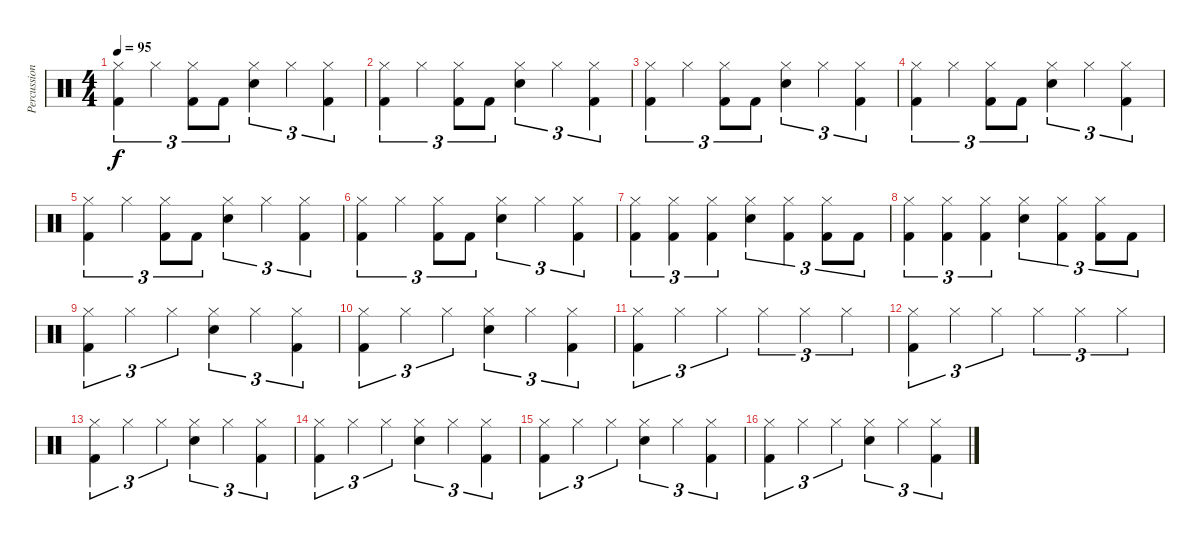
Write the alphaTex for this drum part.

\track ("Percussion" "Percussion") {instrument percussion}
\staff {score}
\articulation defaults
\ts (4 4)
\tempo 95
\clef neutral
\ks c
("Hi-Hat (closed)" "Kick (hit) 2").4{tu (3 2) dy f} "Hi-Hat (closed)".4{tu (3 2)} ("Hi-Hat (closed)" "Kick (hit) 2").8{tu (3 2)} "Kick (hit) 2".8{tu (3 2)} ("Hi-Hat (closed)" "Electric Snare (hit)").4{tu (3 2)} "Hi-Hat (closed)".4{tu (3 2)} ("Hi-Hat (closed)" "Kick (hit) 2").4{tu (3 2)} |
("Hi-Hat (closed)" "Kick (hit) 2").4{tu (3 2)} "Hi-Hat (closed)".4{tu (3 2)} ("Hi-Hat (closed)" "Kick (hit) 2").8{tu (3 2)} "Kick (hit) 2".8{tu (3 2)} ("Hi-Hat (closed)" "Electric Snare (hit)").4{tu (3 2)} "Hi-Hat (closed)".4{tu (3 2)} ("Hi-Hat (closed)" "Kick (hit) 2").4{tu (3 2)} |
("Hi-Hat (closed)" "Kick (hit) 2").4{tu (3 2)} "Hi-Hat (closed)".4{tu (3 2)} ("Hi-Hat (closed)" "Kick (hit) 2").8{tu (3 2)} "Kick (hit) 2".8{tu (3 2)} ("Hi-Hat (closed)" "Electric Snare (hit)").4{tu (3 2)} "Hi-Hat (closed)".4{tu (3 2)} ("Hi-Hat (closed)" "Kick (hit) 2").4{tu (3 2)} |
("Hi-Hat (closed)" "Kick (hit) 2").4{tu (3 2)} "Hi-Hat (closed)".4{tu (3 2)} ("Hi-Hat (closed)" "Kick (hit) 2").8{tu (3 2)} "Kick (hit) 2".8{tu (3 2)} ("Hi-Hat (closed)" "Electric Snare (hit)").4{tu (3 2)} "Hi-Hat (closed)".4{tu (3 2)} ("Hi-Hat (closed)" "Kick (hit) 2").4{tu (3 2)} |
("Hi-Hat (closed)" "Kick (hit) 2").4{tu (3 2)} "Hi-Hat (closed)".4{tu (3 2)} ("Hi-Hat (closed)" "Kick (hit) 2").8{tu (3 2)} "Kick (hit) 2".8{tu (3 2)} ("Hi-Hat (closed)" "Electric Snare (hit)").4{tu (3 2)} "Hi-Hat (closed)".4{tu (3 2)} ("Hi-Hat (closed)" "Kick (hit) 2").4{tu (3 2)} |
("Hi-Hat (closed)" "Kick (hit) 2").4{tu (3 2)} "Hi-Hat (closed)".4{tu (3 2)} ("Hi-Hat (closed)" "Kick (hit) 2").8{tu (3 2)} "Kick (hit) 2".8{tu (3 2)} ("Hi-Hat (closed)" "Electric Snare (hit)").4{tu (3 2)} "Hi-Hat (closed)".4{tu (3 2)} ("Hi-Hat (closed)" "Kick (hit) 2").4{tu (3 2)} |
("Hi-Hat (closed)" "Kick (hit) 2").4{tu (3 2)} ("Hi-Hat (closed)" "Kick (hit) 2").4{tu (3 2)} ("Hi-Hat (closed)" "Kick (hit) 2").4{tu (3 2)} ("Hi-Hat (closed)" "Electric Snare (hit)").4{tu (3 2)} ("Hi-Hat (closed)" "Kick (hit) 2").4{tu (3 2)} ("Hi-Hat (closed)" "Kick (hit) 2").8{tu (3 2)} "Kick (hit) 2".8{tu (3 2)} |
("Hi-Hat (closed)" "Kick (hit) 2").4{tu (3 2)} ("Hi-Hat (closed)" "Kick (hit) 2").4{tu (3 2)} ("Hi-Hat (closed)" "Kick (hit) 2").4{tu (3 2)} ("Hi-Hat (closed)" "Electric Snare (hit)").4{tu (3 2)} ("Hi-Hat (closed)" "Kick (hit) 2").4{tu (3 2)} ("Hi-Hat (closed)" "Kick (hit) 2").8{tu (3 2)} "Kick (hit) 2".8{tu (3 2)} |
("Hi-Hat (closed)" "Kick (hit) 2").4{tu (3 2)} "Hi-Hat (closed)".4{tu (3 2)} "Hi-Hat (closed)".4{tu (3 2)} ("Hi-Hat (closed)" "Electric Snare (hit)").4{tu (3 2)} "Hi-Hat (closed)".4{tu (3 2)} ("Hi-Hat (closed)" "Kick (hit) 2").4{tu (3 2)} |
("Hi-Hat (closed)" "Kick (hit) 2").4{tu (3 2)} "Hi-Hat (closed)".4{tu (3 2)} "Hi-Hat (closed)".4{tu (3 2)} ("Hi-Hat (closed)" "Electric Snare (hit)").4{tu (3 2)} "Hi-Hat (closed)".4{tu (3 2)} ("Hi-Hat (closed)" "Kick (hit) 2").4{tu (3 2)} |
("Hi-Hat (closed)" "Kick (hit) 2").4{tu (3 2)} "Hi-Hat (closed)".4{tu (3 2)} "Hi-Hat (closed)".4{tu (3 2)} "Hi-Hat (closed)".4{tu (3 2)} "Hi-Hat (closed)".4{tu (3 2)} "Hi-Hat (closed)".4{tu (3 2)} |
("Hi-Hat (closed)" "Kick (hit) 2").4{tu (3 2)} "Hi-Hat (closed)".4{tu (3 2)} "Hi-Hat (closed)".4{tu (3 2)} "Hi-Hat (closed)".4{tu (3 2)} "Hi-Hat (closed)".4{tu (3 2)} "Hi-Hat (closed)".4{tu (3 2)} |
("Hi-Hat (closed)" "Kick (hit) 2").4{tu (3 2)} "Hi-Hat (closed)".4{tu (3 2)} "Hi-Hat (closed)".4{tu (3 2)} ("Hi-Hat (closed)" "Electric Snare (hit)").4{tu (3 2)} "Hi-Hat (closed)".4{tu (3 2)} ("Hi-Hat (closed)" "Kick (hit) 2").4{tu (3 2)} |
("Hi-Hat (closed)" "Kick (hit) 2").4{tu (3 2)} "Hi-Hat (closed)".4{tu (3 2)} "Hi-Hat (closed)".4{tu (3 2)} ("Hi-Hat (closed)" "Electric Snare (hit)").4{tu (3 2)} "Hi-Hat (closed)".4{tu (3 2)} ("Hi-Hat (closed)" "Kick (hit) 2").4{tu (3 2)} |
("Hi-Hat (closed)" "Kick (hit) 2").4{tu (3 2)} "Hi-Hat (closed)".4{tu (3 2)} "Hi-Hat (closed)".4{tu (3 2)} ("Hi-Hat (closed)" "Electric Snare (hit)").4{tu (3 2)} "Hi-Hat (closed)".4{tu (3 2)} ("Hi-Hat (closed)" "Kick (hit) 2").4{tu (3 2)} |
("Hi-Hat (closed)" "Kick (hit) 2").4{tu (3 2)} "Hi-Hat (closed)".4{tu (3 2)} "Hi-Hat (closed)".4{tu (3 2)} ("Hi-Hat (closed)" "Electric Snare (hit)").4{tu (3 2)} "Hi-Hat (closed)".4{tu (3 2)} ("Hi-Hat (closed)" "Kick (hit) 2").4{tu (3 2)}
